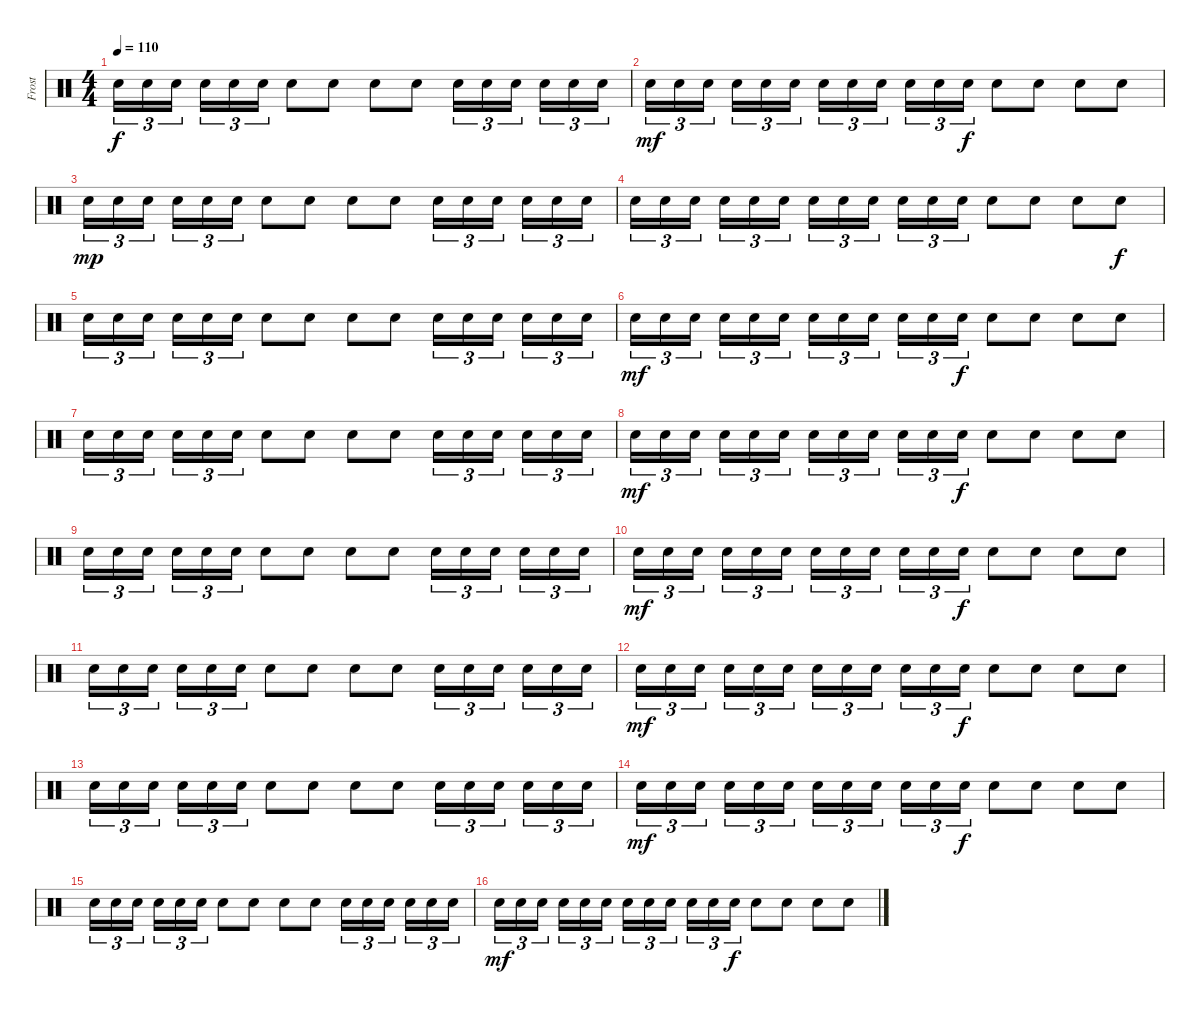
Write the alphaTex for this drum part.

\track ("Frost" "Frost") {instrument percussion}
\staff {score}
\articulation defaults
\ts (4 4)
\tempo 110
\clef neutral
\ks c "Snare (hit) 2".16{tu (3 2) dy f} "Snare (hit) 2".16{tu (3 2)} "Snare (hit) 2".16{tu (3 2)} "Snare (hit) 2".16{tu (3 2)} "Snare (hit) 2".16{tu (3 2)} "Snare (hit) 2".16{tu (3 2)} "Snare (hit) 2".8 "Snare (hit) 2".8 "Snare (hit) 2".8 "Snare (hit) 2".8 "Snare (hit) 2".16{tu (3 2)} "Snare (hit) 2".16{tu (3 2)} "Snare (hit) 2".16{tu (3 2)} "Snare (hit) 2".16{tu (3 2)} "Snare (hit) 2".16{tu (3 2)} "Snare (hit) 2".16{tu (3 2)}
|
"Snare (hit) 2".16{tu (3 2) dy mf} "Snare (hit) 2".16{tu (3 2)} "Snare (hit) 2".16{tu (3 2)} "Snare (hit) 2".16{tu (3 2)} "Snare (hit) 2".16{tu (3 2)} "Snare (hit) 2".16{tu (3 2)} "Snare (hit) 2".16{tu (3 2)} "Snare (hit) 2".16{tu (3 2)} "Snare (hit) 2".16{tu (3 2)} "Snare (hit) 2".16{tu (3 2)} "Snare (hit) 2".16{tu (3 2)} "Snare (hit) 2".16{tu (3 2) dy f} "Snare (hit) 2".8 "Snare (hit) 2".8 "Snare (hit) 2".8 "Snare (hit) 2".8 |
"Snare (hit) 2".16{tu (3 2) dy mp volume 8} "Snare (hit) 2".16{tu (3 2)} "Snare (hit) 2".16{tu (3 2)} "Snare (hit) 2".16{tu (3 2)} "Snare (hit) 2".16{tu (3 2)} "Snare (hit) 2".16{tu (3 2)} "Snare (hit) 2".8 "Snare (hit) 2".8 "Snare (hit) 2".8 "Snare (hit) 2".8 "Snare (hit) 2".16{tu (3 2)} "Snare (hit) 2".16{tu (3 2)} "Snare (hit) 2".16{tu (3 2)} "Snare (hit) 2".16{tu (3 2)} "Snare (hit) 2".16{tu (3 2)} "Snare (hit) 2".16{tu (3 2)} |
"Snare (hit) 2".16{tu (3 2)} "Snare (hit) 2".16{tu (3 2)} "Snare (hit) 2".16{tu (3 2)} "Snare (hit) 2".16{tu (3 2)} "Snare (hit) 2".16{tu (3 2)} "Snare (hit) 2".16{tu (3 2)} "Snare (hit) 2".16{tu (3 2)} "Snare (hit) 2".16{tu (3 2)} "Snare (hit) 2".16{tu (3 2)} "Snare (hit) 2".16{tu (3 2)} "Snare (hit) 2".16{tu (3 2)} "Snare (hit) 2".16{tu (3 2)} "Snare (hit) 2".8 "Snare (hit) 2".8 "Snare (hit) 2".8 "Snare (hit) 2".8{dy f} |
"Snare (hit) 2".16{tu (3 2)} "Snare (hit) 2".16{tu (3 2)} "Snare (hit) 2".16{tu (3 2)} "Snare (hit) 2".16{tu (3 2)} "Snare (hit) 2".16{tu (3 2)} "Snare (hit) 2".16{tu (3 2)} "Snare (hit) 2".8 "Snare (hit) 2".8 "Snare (hit) 2".8 "Snare (hit) 2".8 "Snare (hit) 2".16{tu (3 2)} "Snare (hit) 2".16{tu (3 2)} "Snare (hit) 2".16{tu (3 2)} "Snare (hit) 2".16{tu (3 2)} "Snare (hit) 2".16{tu (3 2)} "Snare (hit) 2".16{tu (3 2)} |
"Snare (hit) 2".16{tu (3 2) dy mf} "Snare (hit) 2".16{tu (3 2)} "Snare (hit) 2".16{tu (3 2)} "Snare (hit) 2".16{tu (3 2)} "Snare (hit) 2".16{tu (3 2)} "Snare (hit) 2".16{tu (3 2)} "Snare (hit) 2".16{tu (3 2)} "Snare (hit) 2".16{tu (3 2)} "Snare (hit) 2".16{tu (3 2)} "Snare (hit) 2".16{tu (3 2)} "Snare (hit) 2".16{tu (3 2)} "Snare (hit) 2".16{tu (3 2) dy f} "Snare (hit) 2".8 "Snare (hit) 2".8 "Snare (hit) 2".8 "Snare (hit) 2".8 |
"Snare (hit) 2".16{tu (3 2)} "Snare (hit) 2".16{tu (3 2)} "Snare (hit) 2".16{tu (3 2)} "Snare (hit) 2".16{tu (3 2)} "Snare (hit) 2".16{tu (3 2)} "Snare (hit) 2".16{tu (3 2)} "Snare (hit) 2".8 "Snare (hit) 2".8 "Snare (hit) 2".8 "Snare (hit) 2".8 "Snare (hit) 2".16{tu (3 2)} "Snare (hit) 2".16{tu (3 2)} "Snare (hit) 2".16{tu (3 2)} "Snare (hit) 2".16{tu (3 2)} "Snare (hit) 2".16{tu (3 2)} "Snare (hit) 2".16{tu (3 2)} |
"Snare (hit) 2".16{tu (3 2) dy mf} "Snare (hit) 2".16{tu (3 2)} "Snare (hit) 2".16{tu (3 2)} "Snare (hit) 2".16{tu (3 2)} "Snare (hit) 2".16{tu (3 2)} "Snare (hit) 2".16{tu (3 2)} "Snare (hit) 2".16{tu (3 2)} "Snare (hit) 2".16{tu (3 2)} "Snare (hit) 2".16{tu (3 2)} "Snare (hit) 2".16{tu (3 2)} "Snare (hit) 2".16{tu (3 2)} "Snare (hit) 2".16{tu (3 2) dy f} "Snare (hit) 2".8 "Snare (hit) 2".8 "Snare (hit) 2".8 "Snare (hit) 2".8 |
"Snare (hit) 2".16{tu (3 2)} "Snare (hit) 2".16{tu (3 2)} "Snare (hit) 2".16{tu (3 2)} "Snare (hit) 2".16{tu (3 2)} "Snare (hit) 2".16{tu (3 2)} "Snare (hit) 2".16{tu (3 2)} "Snare (hit) 2".8 "Snare (hit) 2".8 "Snare (hit) 2".8 "Snare (hit) 2".8 "Snare (hit) 2".16{tu (3 2)} "Snare (hit) 2".16{tu (3 2)} "Snare (hit) 2".16{tu (3 2)} "Snare (hit) 2".16{tu (3 2)} "Snare (hit) 2".16{tu (3 2)} "Snare (hit) 2".16{tu (3 2)} |
"Snare (hit) 2".16{tu (3 2) dy mf} "Snare (hit) 2".16{tu (3 2)} "Snare (hit) 2".16{tu (3 2)} "Snare (hit) 2".16{tu (3 2)} "Snare (hit) 2".16{tu (3 2)} "Snare (hit) 2".16{tu (3 2)} "Snare (hit) 2".16{tu (3 2)} "Snare (hit) 2".16{tu (3 2)} "Snare (hit) 2".16{tu (3 2)} "Snare (hit) 2".16{tu (3 2)} "Snare (hit) 2".16{tu (3 2)} "Snare (hit) 2".16{tu (3 2) dy f} "Snare (hit) 2".8 "Snare (hit) 2".8 "Snare (hit) 2".8 "Snare (hit) 2".8 |
"Snare (hit) 2".16{tu (3 2)} "Snare (hit) 2".16{tu (3 2)} "Snare (hit) 2".16{tu (3 2)} "Snare (hit) 2".16{tu (3 2)} "Snare (hit) 2".16{tu (3 2)} "Snare (hit) 2".16{tu (3 2)} "Snare (hit) 2".8 "Snare (hit) 2".8 "Snare (hit) 2".8 "Snare (hit) 2".8 "Snare (hit) 2".16{tu (3 2)} "Snare (hit) 2".16{tu (3 2)} "Snare (hit) 2".16{tu (3 2)} "Snare (hit) 2".16{tu (3 2)} "Snare (hit) 2".16{tu (3 2)} "Snare (hit) 2".16{tu (3 2)} |
"Snare (hit) 2".16{tu (3 2) dy mf} "Snare (hit) 2".16{tu (3 2)} "Snare (hit) 2".16{tu (3 2)} "Snare (hit) 2".16{tu (3 2)} "Snare (hit) 2".16{tu (3 2)} "Snare (hit) 2".16{tu (3 2)} "Snare (hit) 2".16{tu (3 2)} "Snare (hit) 2".16{tu (3 2)} "Snare (hit) 2".16{tu (3 2)} "Snare (hit) 2".16{tu (3 2)} "Snare (hit) 2".16{tu (3 2)} "Snare (hit) 2".16{tu (3 2) dy f} "Snare (hit) 2".8 "Snare (hit) 2".8 "Snare (hit) 2".8 "Snare (hit) 2".8 |
"Snare (hit) 2".16{tu (3 2)} "Snare (hit) 2".16{tu (3 2)} "Snare (hit) 2".16{tu (3 2)} "Snare (hit) 2".16{tu (3 2)} "Snare (hit) 2".16{tu (3 2)} "Snare (hit) 2".16{tu (3 2)} "Snare (hit) 2".8 "Snare (hit) 2".8 "Snare (hit) 2".8 "Snare (hit) 2".8 "Snare (hit) 2".16{tu (3 2)} "Snare (hit) 2".16{tu (3 2)} "Snare (hit) 2".16{tu (3 2)} "Snare (hit) 2".16{tu (3 2)} "Snare (hit) 2".16{tu (3 2)} "Snare (hit) 2".16{tu (3 2)} |
"Snare (hit) 2".16{tu (3 2) dy mf} "Snare (hit) 2".16{tu (3 2)} "Snare (hit) 2".16{tu (3 2)} "Snare (hit) 2".16{tu (3 2)} "Snare (hit) 2".16{tu (3 2)} "Snare (hit) 2".16{tu (3 2)} "Snare (hit) 2".16{tu (3 2)} "Snare (hit) 2".16{tu (3 2)} "Snare (hit) 2".16{tu (3 2)} "Snare (hit) 2".16{tu (3 2)} "Snare (hit) 2".16{tu (3 2)} "Snare (hit) 2".16{tu (3 2) dy f} "Snare (hit) 2".8 "Snare (hit) 2".8 "Snare (hit) 2".8 "Snare (hit) 2".8 |
"Snare (hit) 2".16{tu (3 2)} "Snare (hit) 2".16{tu (3 2)} "Snare (hit) 2".16{tu (3 2)} "Snare (hit) 2".16{tu (3 2)} "Snare (hit) 2".16{tu (3 2)} "Snare (hit) 2".16{tu (3 2)} "Snare (hit) 2".8 "Snare (hit) 2".8 "Snare (hit) 2".8 "Snare (hit) 2".8 "Snare (hit) 2".16{tu (3 2)} "Snare (hit) 2".16{tu (3 2)} "Snare (hit) 2".16{tu (3 2)} "Snare (hit) 2".16{tu (3 2)} "Snare (hit) 2".16{tu (3 2)} "Snare (hit) 2".16{tu (3 2)} |
"Snare (hit) 2".16{tu (3 2) dy mf} "Snare (hit) 2".16{tu (3 2)} "Snare (hit) 2".16{tu (3 2)} "Snare (hit) 2".16{tu (3 2)} "Snare (hit) 2".16{tu (3 2)} "Snare (hit) 2".16{tu (3 2)} "Snare (hit) 2".16{tu (3 2)} "Snare (hit) 2".16{tu (3 2)} "Snare (hit) 2".16{tu (3 2)} "Snare (hit) 2".16{tu (3 2)} "Snare (hit) 2".16{tu (3 2)} "Snare (hit) 2".16{tu (3 2) dy f} "Snare (hit) 2".8 "Snare (hit) 2".8 "Snare (hit) 2".8 "Snare (hit) 2".8
